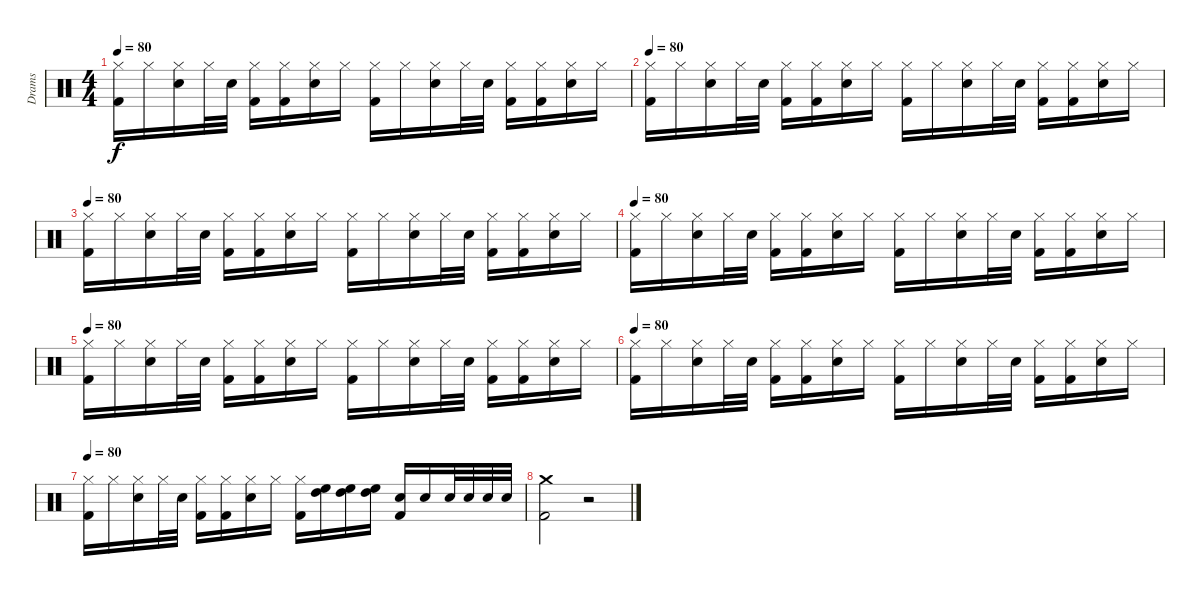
\track ("Drams" "Drams") {instrument percussion}
\staff {score}
\articulation defaults
\ts (4 4)
\tempo 80
\clef neutral
\ks aminor
("Hi-Hat (closed)" "Kick (hit) 2").16{dy f} "Hi-Hat (closed)".16 ("Hi-Hat (closed)" "Electric Snare (hit)").16 "Hi-Hat (closed)".32 "Electric Snare (hit)".32 ("Hi-Hat (closed)" "Kick (hit) 2").16 ("Hi-Hat (closed)" "Kick (hit) 2").16 ("Hi-Hat (closed)" "Electric Snare (hit)").16 "Hi-Hat (closed)".16 ("Hi-Hat (closed)" "Kick (hit) 2").16 "Hi-Hat (closed)".16 ("Hi-Hat (closed)" "Electric Snare (hit)").16 "Hi-Hat (closed)".32 "Electric Snare (hit)".32 ("Kick (hit) 2" "Hi-Hat (closed)").16 ("Kick (hit) 2" "Hi-Hat (closed)").16 ("Electric Snare (hit)" "Hi-Hat (closed)").16 "Hi-Hat (closed)".16 |
\tempo 80
("Hi-Hat (closed)" "Kick (hit) 2").16 "Hi-Hat (closed)".16 ("Hi-Hat (closed)" "Electric Snare (hit)").16 "Hi-Hat (closed)".32 "Electric Snare (hit)".32 ("Hi-Hat (closed)" "Kick (hit) 2").16 ("Hi-Hat (closed)" "Kick (hit) 2").16 ("Electric Snare (hit)" "Hi-Hat (closed)").16 "Hi-Hat (closed)".16 ("Hi-Hat (closed)" "Kick (hit) 2").16 "Hi-Hat (closed)".16 ("Hi-Hat (closed)" "Electric Snare (hit)").16 "Hi-Hat (closed)".32 "Electric Snare (hit)".32 ("Kick (hit) 2" "Hi-Hat (closed)").16 ("Kick (hit) 2" "Hi-Hat (closed)").16 ("Electric Snare (hit)" "Hi-Hat (closed)").16 "Hi-Hat (closed)".16 |
\tempo 80
("Hi-Hat (closed)" "Kick (hit) 2").16 "Hi-Hat (closed)".16 ("Hi-Hat (closed)" "Electric Snare (hit)").16 "Hi-Hat (closed)".32 "Electric Snare (hit)".32 ("Hi-Hat (closed)" "Kick (hit) 2").16 ("Hi-Hat (closed)" "Kick (hit) 2").16 ("Hi-Hat (closed)" "Electric Snare (hit)").16 "Hi-Hat (closed)".16 ("Hi-Hat (closed)" "Kick (hit) 2").16 "Hi-Hat (closed)".16 ("Hi-Hat (closed)" "Electric Snare (hit)").16 "Hi-Hat (closed)".32 "Electric Snare (hit)".32 ("Kick (hit) 2" "Hi-Hat (closed)").16 ("Kick (hit) 2" "Hi-Hat (closed)").16 ("Electric Snare (hit)" "Hi-Hat (closed)").16 "Hi-Hat (closed)".16 |
\tempo 80
("Hi-Hat (closed)" "Kick (hit) 2").16 "Hi-Hat (closed)".16 ("Hi-Hat (closed)" "Electric Snare (hit)").16 "Hi-Hat (closed)".32 "Electric Snare (hit)".32 ("Hi-Hat (closed)" "Kick (hit) 2").16 ("Hi-Hat (closed)" "Kick (hit) 2").16 ("Hi-Hat (closed)" "Electric Snare (hit)").16 "Hi-Hat (closed)".16 ("Hi-Hat (closed)" "Kick (hit) 2").16 "Hi-Hat (closed)".16 ("Hi-Hat (closed)" "Electric Snare (hit)").16 "Hi-Hat (closed)".32 "Electric Snare (hit)".32 ("Kick (hit) 2" "Hi-Hat (closed)").16 ("Kick (hit) 2" "Hi-Hat (closed)").16 ("Electric Snare (hit)" "Hi-Hat (closed)").16 "Hi-Hat (closed)".16 |
\tempo 80
("Hi-Hat (closed)" "Kick (hit) 2").16 "Hi-Hat (closed)".16 ("Hi-Hat (closed)" "Electric Snare (hit)").16 "Hi-Hat (closed)".32 "Electric Snare (hit)".32 ("Hi-Hat (closed)" "Kick (hit) 2").16 ("Hi-Hat (closed)" "Kick (hit) 2").16 ("Hi-Hat (closed)" "Electric Snare (hit)").16 "Hi-Hat (closed)".16 ("Hi-Hat (closed)" "Kick (hit) 2").16 "Hi-Hat (closed)".16 ("Hi-Hat (closed)" "Electric Snare (hit)").16 "Hi-Hat (closed)".32 "Electric Snare (hit)".32 ("Kick (hit) 2" "Hi-Hat (closed)").16 ("Kick (hit) 2" "Hi-Hat (closed)").16 ("Electric Snare (hit)" "Hi-Hat (closed)").16 "Hi-Hat (closed)".16 |
\tempo 80
("Hi-Hat (closed)" "Kick (hit) 2").16 "Hi-Hat (closed)".16 ("Hi-Hat (closed)" "Electric Snare (hit)").16 "Hi-Hat (closed)".32 "Electric Snare (hit)".32 ("Hi-Hat (closed)" "Kick (hit) 2").16 ("Hi-Hat (closed)" "Kick (hit) 2").16 ("Hi-Hat (closed)" "Electric Snare (hit)").16 "Hi-Hat (closed)".16 ("Hi-Hat (closed)" "Kick (hit) 2").16 "Hi-Hat (closed)".16 ("Hi-Hat (closed)" "Electric Snare (hit)").16 "Hi-Hat (closed)".32 "Electric Snare (hit)".32 ("Kick (hit) 2" "Hi-Hat (closed)").16 ("Kick (hit) 2" "Hi-Hat (closed)").16 ("Electric Snare (hit)" "Hi-Hat (closed)").16 "Hi-Hat (closed)".16 |
\tempo 80
("Hi-Hat (closed)" "Kick (hit) 2").16 "Hi-Hat (closed)".16 ("Hi-Hat (closed)" "Electric Snare (hit)").16 "Hi-Hat (closed)".32 "Electric Snare (hit)".32 ("Hi-Hat (closed)" "Kick (hit) 2").16 ("Hi-Hat (closed)" "Kick (hit) 2").16 ("Hi-Hat (closed)" "Electric Snare (hit)").16 "Hi-Hat (closed)".16 ("Hi-Hat (closed)" "Kick (hit) 2").16 ("High Tom (hit)" "High Floor Tom (hit)").16 ("High Tom (hit)" "High Floor Tom (hit)").16 ("High Tom (hit)" "High Floor Tom (hit)").16 ("Electric Snare (hit)" "Kick (hit) 2").16 "Electric Snare (hit)".16 "Electric Snare (hit)".32 "Electric Snare (hit)".32 "Electric Snare (hit)".32 "Electric Snare (hit)".32 |
("Crash medium (hit)" "Kick (hit) 2").2 r.2
